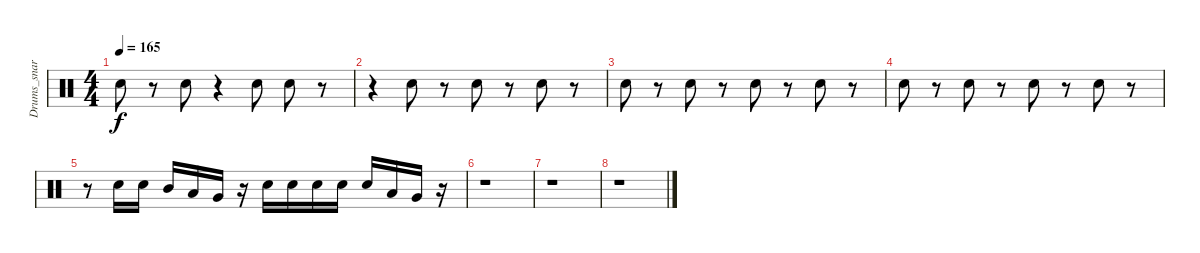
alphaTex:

\track ("Drums_snare&tom" "Drums_snar") {instrument percussion}
\staff {score}
\articulation defaults
\ts (4 4)
\tempo 165
\clef neutral
\ks c "Snare (hit) 2".8{dy f}
r.8 "Snare (hit) 2".8 r.4 "Snare (hit) 2".8 "Snare (hit) 2".8 r.8 |
r.4 "Snare (hit) 2".8 r.8 "Snare (hit) 2".8 r.8 "Snare (hit) 2".8 r.8 |
"Snare (hit) 2".8 r.8 "Snare (hit) 2".8 r.8 "Snare (hit) 2".8 r.8 "Snare (hit) 2".8 r.8 |
"Snare (hit) 2".8 r.8 "Snare (hit) 2".8 r.8 "Snare (hit) 2".8 r.8 "Snare (hit) 2".8 r.8 |
r.8 "Snare (hit) 2".16 "Snare (hit) 2".16 "Mid Tom (hit)".16 "Low Tom (hit)".16 "Very Low Tom (hit)".16 r.16 "Snare (hit) 2".16 "Snare (hit) 2".16 "Snare (hit) 2".16 "Snare (hit) 2".16 "Snare (hit) 2".16 "Low Tom (hit)".16 "Very Low Tom (hit)".16 r.16 |
r.1 |
r.1 |
r.1
